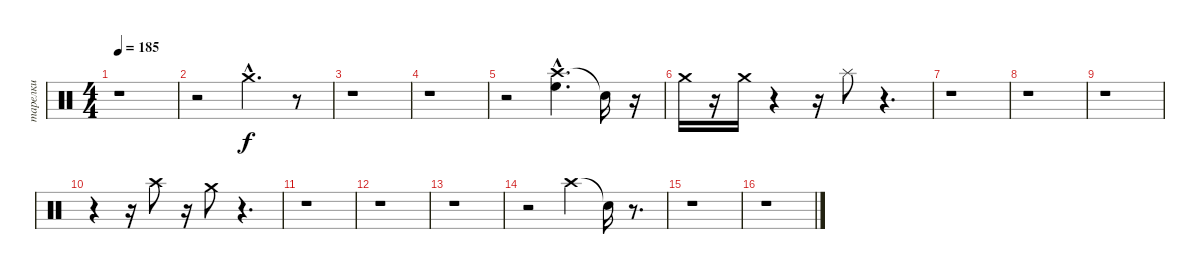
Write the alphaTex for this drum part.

\track ("тарелки" "тарелки") {instrument percussion}
\staff {score}
\articulation defaults
\ts (4 4)
\tempo 185
\clef neutral
\ks c
r.1{dy f} |
r.2 "Crash medium (hit)"{hac}.4{d} r.8 |
r.1 |
r.1 |
r.2 ("Crash high (hit)"{hac} "High Floor Tom (hit)").4{d} "Snare (hit)"{t}.16 r.16 |
"Crash medium (hit)".16 r.16 "Crash medium (hit)".16 r.4 r.16 "Splash (hit)".8 r.4{d} |
r.1 |
r.1 |
r.1 |
r.4 r.16 "Crash high (hit)".8 r.16 "Crash medium (hit)".8 r.4{d} |
r.1 |
r.1 |
r.1 |
r.2 "Crash high (hit)".4 "Snare (hit)"{t}.16 r.8{d} |
r.1 |
r.1
